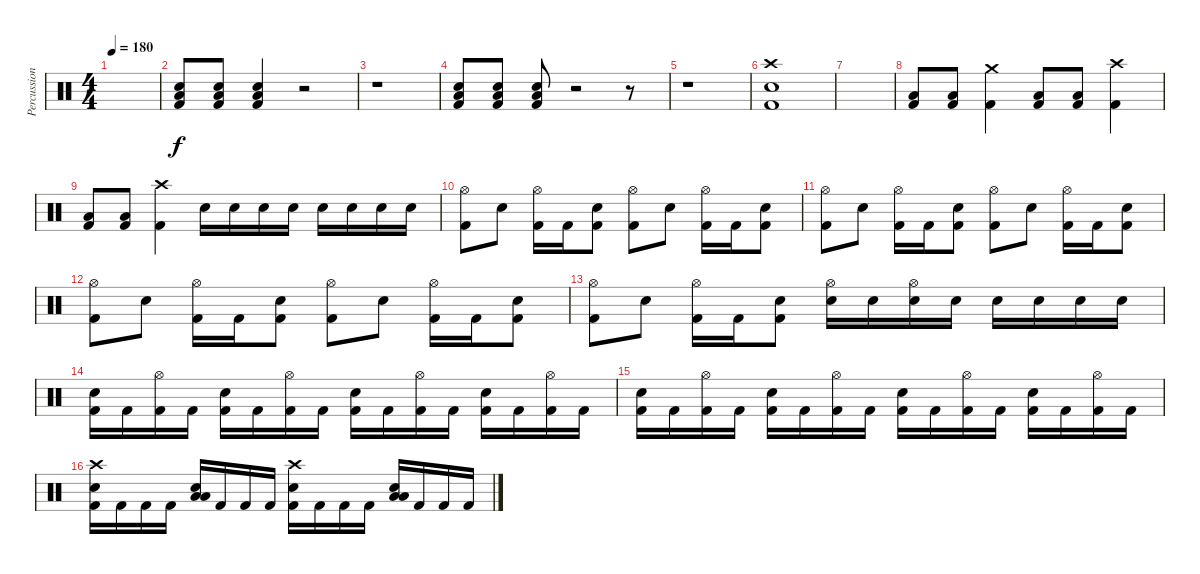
\track ("Percussion" "Percussion") {instrument percussion}
\staff {score}
\articulation defaults
\ts (4 4)
\tempo 180
\clef neutral
\ks c
|
("Kick (hit) 2" "Low Floor Tom (hit)" "Snare (hit) 2").8 ("Kick (hit) 2" "Low Floor Tom (hit)" "Snare (hit) 2").8 ("Kick (hit) 2" "Low Floor Tom (hit)" "Snare (hit) 2").4 r.2 |
r.1 |
("Kick (hit) 2" "Low Floor Tom (hit)" "Snare (hit) 2").8 ("Kick (hit) 2" "Low Floor Tom (hit)" "Snare (hit) 2").8 ("Kick (hit) 2" "Low Floor Tom (hit)" "Snare (hit) 2").8 r.2 r.8 |
r.1 |
("Kick (hit) 2" "Snare (hit) 2" "Crash high (hit)").1 |
|
("Kick (hit) 2" "Low Floor Tom (hit)").8 ("Kick (hit) 2" "Low Floor Tom (hit)").8 ("Kick (hit) 2" "Crash medium (hit)").4 ("Kick (hit) 2" "Low Floor Tom (hit)").8 ("Kick (hit) 2" "Low Floor Tom (hit)").8 ("Kick (hit) 2" "Crash high (hit)").4 |
("Kick (hit) 2" "Low Floor Tom (hit)").8 ("Kick (hit) 2" "Low Floor Tom (hit)").8 ("Kick (hit) 2" "Crash high (hit)").4 "Snare (hit) 2".16 "Snare (hit) 2".16 "Snare (hit) 2".16 "Snare (hit) 2".16 "Snare (hit) 2".16 "Snare (hit) 2".16 "Snare (hit) 2".16 "Snare (hit) 2".16 |
("Kick (hit) 2" "Hi-Hat (open)").8 "Snare (hit) 2".8 ("Kick (hit) 2" "Hi-Hat (open)").16 "Kick (hit) 2".16 ("Kick (hit) 2" "Snare (hit) 2").8 ("Kick (hit) 2" "Hi-Hat (open)").8 "Snare (hit) 2".8 ("Kick (hit) 2" "Hi-Hat (open)").16 "Kick (hit) 2".16 ("Kick (hit) 2" "Snare (hit) 2").8 |
("Kick (hit) 2" "Hi-Hat (open)").8 "Snare (hit) 2".8 ("Kick (hit) 2" "Hi-Hat (open)").16 "Kick (hit) 2".16 ("Kick (hit) 2" "Snare (hit) 2").8 ("Kick (hit) 2" "Hi-Hat (open)").8 "Snare (hit) 2".8 ("Kick (hit) 2" "Hi-Hat (open)").16 "Kick (hit) 2".16 ("Kick (hit) 2" "Snare (hit) 2").8 |
("Kick (hit) 2" "Hi-Hat (open)").8 "Snare (hit) 2".8 ("Kick (hit) 2" "Hi-Hat (open)").16 "Kick (hit) 2".16 ("Kick (hit) 2" "Snare (hit) 2").8 ("Kick (hit) 2" "Hi-Hat (open)").8 "Snare (hit) 2".8 ("Kick (hit) 2" "Hi-Hat (open)").16 "Kick (hit) 2".16 ("Kick (hit) 2" "Snare (hit) 2").8 |
("Kick (hit) 2" "Hi-Hat (open)").8 "Snare (hit) 2".8 ("Kick (hit) 2" "Hi-Hat (open)").16 "Kick (hit) 2".16 ("Kick (hit) 2" "Snare (hit) 2").8 ("Snare (hit) 2" "Hi-Hat (open)").16 "Snare (hit) 2".16 ("Snare (hit) 2" "Hi-Hat (open)").16 "Snare (hit) 2".16 "Snare (hit) 2".16 "Snare (hit) 2".16 "Snare (hit) 2".16 "Snare (hit) 2".16 |
("Kick (hit) 2" "Snare (hit) 2").16 "Kick (hit) 2".16 ("Kick (hit) 2" "Hi-Hat (open)").16 "Kick (hit) 2".16 ("Kick (hit) 2" "Snare (hit) 2").16 "Kick (hit) 2".16 ("Kick (hit) 2" "Hi-Hat (open)").16 "Kick (hit) 2".16 ("Kick (hit) 2" "Snare (hit) 2").16 "Kick (hit) 2".16 ("Kick (hit) 2" "Hi-Hat (open)").16 "Kick (hit) 2".16 ("Kick (hit) 2" "Snare (hit) 2").16 "Kick (hit) 2".16 ("Kick (hit) 2" "Hi-Hat (open)").16 "Kick (hit) 2".16 |
("Kick (hit) 2" "Snare (hit) 2").16 "Kick (hit) 2".16 ("Kick (hit) 2" "Hi-Hat (open)").16 "Kick (hit) 2".16 ("Kick (hit) 2" "Snare (hit) 2").16 "Kick (hit) 2".16 ("Kick (hit) 2" "Hi-Hat (open)").16 "Kick (hit) 2".16 ("Kick (hit) 2" "Snare (hit) 2").16 "Kick (hit) 2".16 ("Kick (hit) 2" "Hi-Hat (open)").16 "Kick (hit) 2".16 ("Kick (hit) 2" "Snare (hit) 2").16 "Kick (hit) 2".16 ("Kick (hit) 2" "Hi-Hat (open)").16 "Kick (hit) 2".16 |
("Kick (hit) 2" "Snare (hit) 2" "Crash high (hit)").16 "Kick (hit) 2".16 "Kick (hit) 2".16 "Kick (hit) 2".16 ("Snare (hit) 2" "Low Floor Tom (hit)" "Low Floor Tom (hit)").16 "Kick (hit) 2".16 "Kick (hit) 2".16 "Kick (hit) 2".16 ("Kick (hit) 2" "Snare (hit) 2" "Crash high (hit)").16 "Kick (hit) 2".16 "Kick (hit) 2".16 "Kick (hit) 2".16 ("Snare (hit) 2" "Low Floor Tom (hit)" "Low Floor Tom (hit)").16 "Kick (hit) 2".16 "Kick (hit) 2".16 "Kick (hit) 2".16
